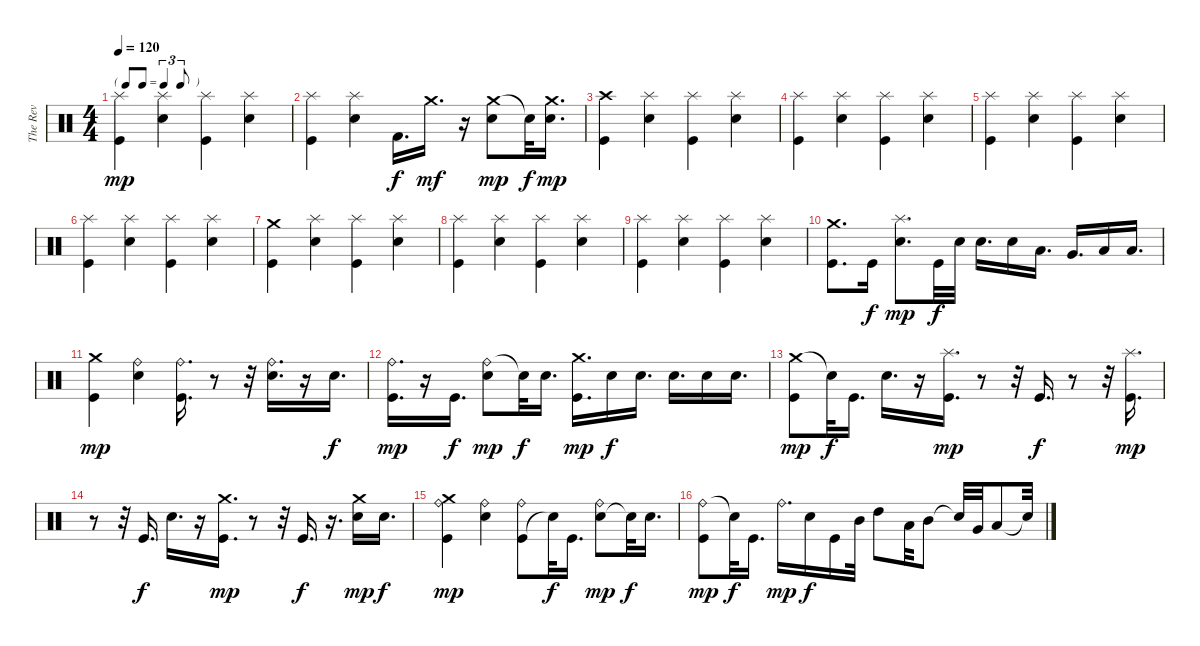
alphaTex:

\track ("The Rev" "The Rev") {instrument percussion}
\staff {score}
\articulation defaults
\ts (4 4)
\tf triplet8th
\tempo 120
\clef neutral
\ks c
("Kick (hit)" "Splash (hit)").4{dy mp} ("Electric Snare (hit)" "Splash (hit)").4 ("Kick (hit)" "Splash (hit)").4 ("Electric Snare (hit)" "Splash (hit)").4 |
("Kick (hit)" "Splash (hit)").4 ("Electric Snare (hit)" "Splash (hit)").4 "Kick (hit) 2".16{d dy f} "Crash medium (hit)".16{d dy mf} r.16 ("Crash medium (hit)" "Electric Snare (hit)").8{dy mp} "Snare (hit)"{t}.32{dy f} ("Crash medium (hit)" "Electric Snare (hit)").16{d dy mp} |
("Kick (hit)" "Crash high (hit)").4 ("Splash (hit)" "Electric Snare (hit)").4 ("Splash (hit)" "Kick (hit)").4 ("Splash (hit)" "Electric Snare (hit)").4 |
("Kick (hit)" "Splash (hit)").4 ("Splash (hit)" "Electric Snare (hit)").4 ("Splash (hit)" "Kick (hit)").4 ("Splash (hit)" "Electric Snare (hit)").4 |
("Kick (hit)" "Splash (hit)").4 ("Electric Snare (hit)" "Splash (hit)").4 ("Kick (hit)" "Splash (hit)").4 ("Electric Snare (hit)" "Splash (hit)").4 |
("Kick (hit)" "Splash (hit)").4 ("Electric Snare (hit)" "Splash (hit)").4 ("Kick (hit)" "Splash (hit)").4 ("Electric Snare (hit)" "Splash (hit)").4 |
("Kick (hit)" "Crash medium (hit)").4 ("Splash (hit)" "Electric Snare (hit)").4 ("Splash (hit)" "Kick (hit)").4 ("Splash (hit)" "Electric Snare (hit)").4 |
("Kick (hit)" "Splash (hit)").4 ("Splash (hit)" "Electric Snare (hit)").4 ("Splash (hit)" "Kick (hit)").4 ("Splash (hit)" "Electric Snare (hit)").4 |
("Kick (hit)" "Splash (hit)").4 ("Electric Snare (hit)" "Splash (hit)").4 ("Kick (hit)" "Splash (hit)").4 ("Electric Snare (hit)" "Splash (hit)").4 |
("Kick (hit)" "Crash medium (hit)").8{d} "Kick (hit)".16{dy f} ("Electric Snare (hit)" "Splash (hit)").8{d dy mp} "Kick (hit)".32{dy f} "Snare (hit) 2".32 "Electric Snare (hit)".16{d} "Electric Snare (hit)".16 "Low Tom (hit)".16{d} "Very Low Tom (hit)".16{d} "Low Floor Tom (hit)".16 "Low Floor Tom (hit)".16{d} |
("Kick (hit)" "Crash medium (hit)").4{dy mp} ("Electric Snare (hit)" "Ride (bell)").4 ("Ride (bell)" "Kick (hit)").16{d} r.8 r.32 ("Ride (bell)" "Electric Snare (hit)").16{d} r.16 "Electric Snare (hit)".16{d dy f} |
("Ride (bell)" "Kick (hit)").16{d dy mp} r.16 "Kick (hit)".16{d dy f} ("Ride (bell)" "Electric Snare (hit)").8{dy mp} "Snare (hit)"{t}.32{dy f} "Electric Snare (hit)".16{d} ("Kick (hit)" "Crash medium (hit)").16{d dy mp} "Electric Snare (hit)".16{dy f} "Electric Snare (hit)".16{d} "Electric Snare (hit)".16{d} "Electric Snare (hit)".16 "Electric Snare (hit)".16{d} |
("Crash medium (hit)" "Kick (hit)").8{dy mp} "Snare (hit)"{t}.32{dy f} "Kick (hit)".16{d} "Electric Snare (hit)".16{d} r.16 ("Splash (hit)" "Kick (hit)").16{d dy mp} r.8 r.32 "Kick (hit)".16{d dy f} r.8 r.32 ("Splash (hit)" "Kick (hit)").16{d dy mp} |
r.8 r.32 "Kick (hit)".16{d dy f} "Electric Snare (hit)".16{d} r.16 ("Crash medium (hit)" "Kick (hit)").16{d dy mp} r.8 r.32 "Kick (hit)".16{d dy f} r.16{d} ("Electric Snare (hit)" "Crash medium (hit)").16{dy mp} "Electric Snare (hit)".16{d dy f} |
("Crash medium (hit)" "Kick (hit)" "Ride (bell)").4{dy mp} ("Electric Snare (hit)" "Ride (bell)").4 ("Kick (hit)" "Ride (bell)").8 "Snare (hit)"{t}.32{dy f} "Kick (hit)".16{d} ("Electric Snare (hit)" "Ride (bell)").8{dy mp} "Snare (hit)"{t}.32{dy f} "Electric Snare (hit)".16{d} |
("Ride (bell)" "Kick (hit)").8{dy mp} "Snare (hit)"{t}.32{dy f} "Kick (hit)".16{d} "Ride (bell)".16{d dy mp} "Electric Snare (hit)".16{dy f} "Kick (hit)".16 "Mid Tom (hit)".32 "High Tom (hit)".8 "Low Tom (hit)".32 "Mid Tom (hit)".8 "Snare (hit)"{t}.32 "Very Low Tom (hit)".32 "Low Tom (hit)".8 "Snare (hit)"{t}.32
